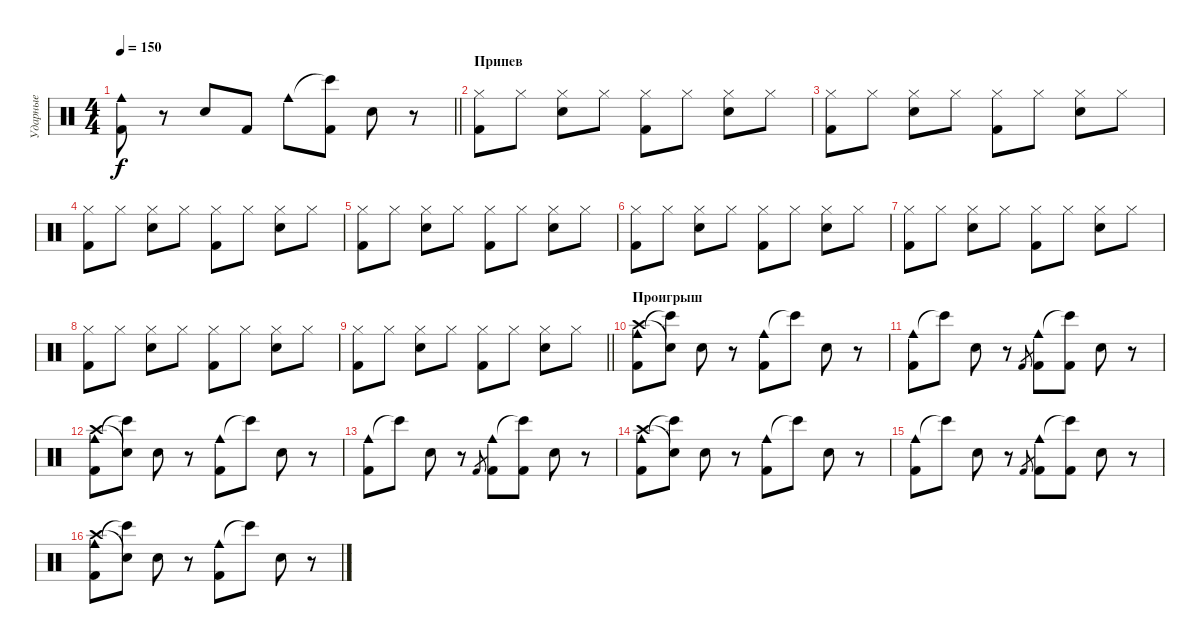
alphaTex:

\track ("Ударные" "Ударные") {instrument percussion}
\staff {score}
\articulation defaults
\ts (4 4)
\tempo 150
\clef neutral
\barLineRight lightlight
\ks c
("Cowbell medium (hit)" "Kick (hit) 2").8{dy f} r.8 "Snare (hit) 2".8 "Kick (hit) 2".8 "Cowbell medium (hit)".8 ("Bongo High (hit)"{t} "Kick (hit) 2").8 "Snare (hit) 2".8 r.8 |
\section ("" "Припев")
("Hi-Hat (closed)" "Kick (hit) 2").8 "Hi-Hat (closed)".8 ("Hi-Hat (closed)" "Snare (hit) 2").8 "Hi-Hat (closed)".8 ("Hi-Hat (closed)" "Kick (hit) 2").8 "Hi-Hat (closed)".8 ("Hi-Hat (closed)" "Snare (hit) 2").8 "Hi-Hat (closed)".8 |
("Hi-Hat (closed)" "Kick (hit) 2").8 "Hi-Hat (closed)".8 ("Hi-Hat (closed)" "Snare (hit) 2").8 "Hi-Hat (closed)".8 ("Hi-Hat (closed)" "Kick (hit) 2").8 "Hi-Hat (closed)".8 ("Hi-Hat (closed)" "Snare (hit) 2").8 "Hi-Hat (closed)".8 |
("Hi-Hat (closed)" "Kick (hit) 2").8 "Hi-Hat (closed)".8 ("Hi-Hat (closed)" "Snare (hit) 2").8 "Hi-Hat (closed)".8 ("Hi-Hat (closed)" "Kick (hit) 2").8 "Hi-Hat (closed)".8 ("Hi-Hat (closed)" "Snare (hit) 2").8 "Hi-Hat (closed)".8 |
("Hi-Hat (closed)" "Kick (hit) 2").8 "Hi-Hat (closed)".8 ("Hi-Hat (closed)" "Snare (hit) 2").8 "Hi-Hat (closed)".8 ("Hi-Hat (closed)" "Kick (hit) 2").8 "Hi-Hat (closed)".8 ("Hi-Hat (closed)" "Snare (hit) 2").8 "Hi-Hat (closed)".8 |
("Hi-Hat (closed)" "Kick (hit) 2").8 "Hi-Hat (closed)".8 ("Hi-Hat (closed)" "Snare (hit) 2").8 "Hi-Hat (closed)".8 ("Hi-Hat (closed)" "Kick (hit) 2").8 "Hi-Hat (closed)".8 ("Hi-Hat (closed)" "Snare (hit) 2").8 "Hi-Hat (closed)".8 |
("Hi-Hat (closed)" "Kick (hit) 2").8 "Hi-Hat (closed)".8 ("Hi-Hat (closed)" "Snare (hit) 2").8 "Hi-Hat (closed)".8 ("Hi-Hat (closed)" "Kick (hit) 2").8 "Hi-Hat (closed)".8 ("Hi-Hat (closed)" "Snare (hit) 2").8 "Hi-Hat (closed)".8 |
("Hi-Hat (closed)" "Kick (hit) 2").8 "Hi-Hat (closed)".8 ("Hi-Hat (closed)" "Snare (hit) 2").8 "Hi-Hat (closed)".8 ("Hi-Hat (closed)" "Kick (hit) 2").8 "Hi-Hat (closed)".8 ("Hi-Hat (closed)" "Snare (hit) 2").8 "Hi-Hat (closed)".8 |
\barLineRight lightlight
("Hi-Hat (closed)" "Kick (hit) 2").8 "Hi-Hat (closed)".8 ("Hi-Hat (closed)" "Snare (hit) 2").8 "Hi-Hat (closed)".8 ("Hi-Hat (closed)" "Kick (hit) 2").8 "Hi-Hat (closed)".8 ("Hi-Hat (closed)" "Snare (hit) 2").8 "Hi-Hat (closed)".8 |
\section ("" "Проигрыш")
("Cowbell medium (hit)" "Crash high (hit)" "Kick (hit) 2").8 ("Bongo High (hit)"{t} "Snare (hit)"{t}).8 "Snare (hit) 2".8 r.8 ("Cowbell medium (hit)" "Kick (hit) 2").8 "Bongo High (hit)"{t}.8 "Snare (hit) 2".8 r.8 |
("Cowbell medium (hit)" "Kick (hit) 2").8 "Bongo High (hit)"{t}.8 "Snare (hit) 2".8 r.8 "Kick (hit) 2".8{gr} ("Cowbell medium (hit)" "Kick (hit) 2").8 ("Bongo High (hit)"{t} "Kick (hit) 2").8 "Snare (hit) 2".8 r.8 |
("Cowbell medium (hit)" "Crash high (hit)" "Kick (hit) 2").8 ("Bongo High (hit)"{t} "Snare (hit)"{t}).8 "Snare (hit) 2".8 r.8 ("Cowbell medium (hit)" "Kick (hit) 2").8 "Bongo High (hit)"{t}.8 "Snare (hit) 2".8 r.8 |
("Cowbell medium (hit)" "Kick (hit) 2").8 "Bongo High (hit)"{t}.8 "Snare (hit) 2".8 r.8 "Kick (hit) 2".8{gr} ("Cowbell medium (hit)" "Kick (hit) 2").8 ("Bongo High (hit)"{t} "Kick (hit) 2").8 "Snare (hit) 2".8 r.8 |
("Cowbell medium (hit)" "Crash high (hit)" "Kick (hit) 2").8 ("Bongo High (hit)"{t} "Snare (hit)"{t}).8 "Snare (hit) 2".8 r.8 ("Cowbell medium (hit)" "Kick (hit) 2").8 "Bongo High (hit)"{t}.8 "Snare (hit) 2".8 r.8 |
("Cowbell medium (hit)" "Kick (hit) 2").8 "Bongo High (hit)"{t}.8 "Snare (hit) 2".8 r.8 "Kick (hit) 2".8{gr} ("Cowbell medium (hit)" "Kick (hit) 2").8 ("Bongo High (hit)"{t} "Kick (hit) 2").8 "Snare (hit) 2".8 r.8 |
("Cowbell medium (hit)" "Crash high (hit)" "Kick (hit) 2").8 ("Bongo High (hit)"{t} "Snare (hit)"{t}).8 "Snare (hit) 2".8 r.8 ("Cowbell medium (hit)" "Kick (hit) 2").8 "Bongo High (hit)"{t}.8 "Snare (hit) 2".8 r.8
